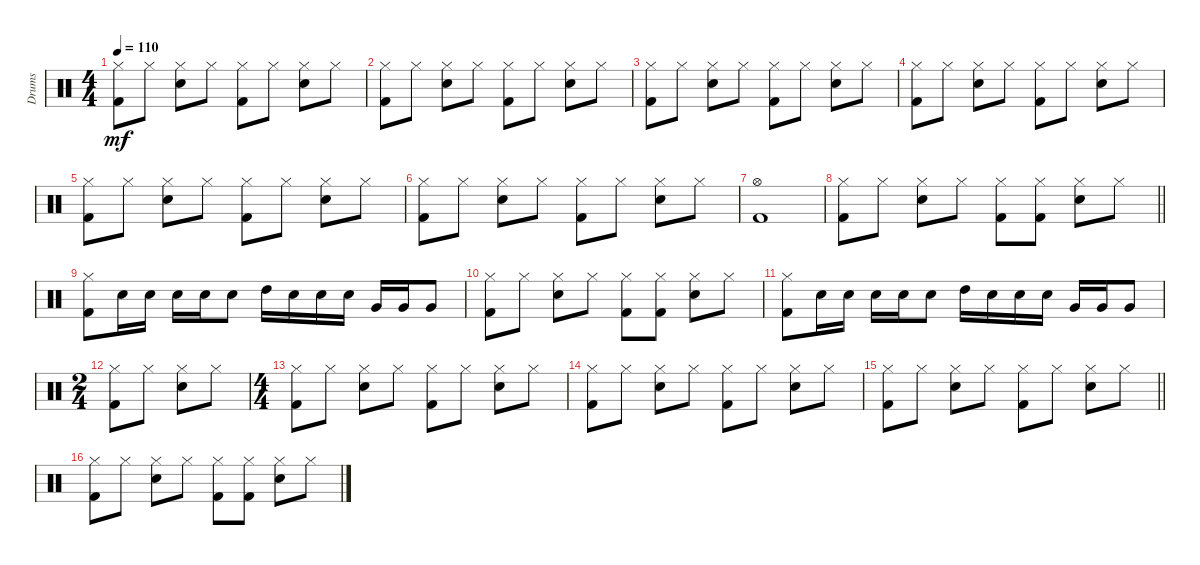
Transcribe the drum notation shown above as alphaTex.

\track ("Drums" "Drums") {instrument percussion}
\staff {score}
\articulation defaults
\ts (4 4)
\tempo 110
\clef neutral
\ks c
("Hi-Hat (closed)" "Kick (hit) 2").8{dy mf} "Hi-Hat (closed)".8 ("Hi-Hat (closed)" "Snare (hit) 2").8 "Hi-Hat (closed)".8 ("Hi-Hat (closed)" "Kick (hit) 2").8 "Hi-Hat (closed)".8 ("Hi-Hat (closed)" "Snare (hit) 2").8 "Hi-Hat (closed)".8 |
("Hi-Hat (closed)" "Kick (hit) 2").8 "Hi-Hat (closed)".8 ("Hi-Hat (closed)" "Snare (hit) 2").8 "Hi-Hat (closed)".8 ("Hi-Hat (closed)" "Kick (hit) 2").8 "Hi-Hat (closed)".8 ("Hi-Hat (closed)" "Snare (hit) 2").8 "Hi-Hat (closed)".8 |
("Hi-Hat (closed)" "Kick (hit) 2").8 "Hi-Hat (closed)".8 ("Hi-Hat (closed)" "Snare (hit) 2").8 "Hi-Hat (closed)".8 ("Hi-Hat (closed)" "Kick (hit) 2").8 "Hi-Hat (closed)".8 ("Hi-Hat (closed)" "Snare (hit) 2").8 "Hi-Hat (closed)".8 |
("Hi-Hat (closed)" "Kick (hit) 2").8 "Hi-Hat (closed)".8 ("Hi-Hat (closed)" "Snare (hit) 2").8 "Hi-Hat (closed)".8 ("Hi-Hat (closed)" "Kick (hit) 2").8 "Hi-Hat (closed)".8 ("Hi-Hat (closed)" "Snare (hit) 2").8 "Hi-Hat (closed)".8 |
("Hi-Hat (closed)" "Kick (hit) 2").8 "Hi-Hat (closed)".8 ("Hi-Hat (closed)" "Snare (hit) 2").8 "Hi-Hat (closed)".8 ("Hi-Hat (closed)" "Kick (hit) 2").8 "Hi-Hat (closed)".8 ("Hi-Hat (closed)" "Snare (hit) 2").8 "Hi-Hat (closed)".8 |
("Hi-Hat (closed)" "Kick (hit) 2").8 "Hi-Hat (closed)".8 ("Hi-Hat (closed)" "Snare (hit) 2").8 "Hi-Hat (closed)".8 ("Hi-Hat (closed)" "Kick (hit) 2").8 "Hi-Hat (closed)".8 ("Hi-Hat (closed)" "Snare (hit) 2").8 "Hi-Hat (closed)".8 |
("Hi-Hat (open)" "Kick (hit) 2").1 |
\barLineRight lightlight
("Hi-Hat (closed)" "Kick (hit) 2").8 "Hi-Hat (closed)".8 ("Hi-Hat (closed)" "Snare (hit) 2").8 "Hi-Hat (closed)".8 ("Hi-Hat (closed)" "Kick (hit) 2").8 ("Hi-Hat (closed)" "Kick (hit) 2").8 ("Hi-Hat (closed)" "Snare (hit) 2").8 "Hi-Hat (closed)".8 |
("Hi-Hat (closed)" "Kick (hit) 2").8 "Snare (hit) 2".16 "Snare (hit) 2".16 "Snare (hit) 2".16 "Snare (hit) 2".16 "Snare (hit) 2".8 "High Tom (hit)".16 "Snare (hit) 2".16 "Snare (hit) 2".16 "Snare (hit) 2".16 "Very Low Tom (hit)".16 "Very Low Tom (hit)".16 "Very Low Tom (hit)".8 |
("Hi-Hat (closed)" "Kick (hit) 2").8 "Hi-Hat (closed)".8 ("Hi-Hat (closed)" "Snare (hit) 2").8 "Hi-Hat (closed)".8 ("Hi-Hat (closed)" "Kick (hit) 2").8 ("Hi-Hat (closed)" "Kick (hit) 2").8 ("Hi-Hat (closed)" "Snare (hit) 2").8 "Hi-Hat (closed)".8 |
("Hi-Hat (closed)" "Kick (hit) 2").8 "Snare (hit) 2".16 "Snare (hit) 2".16 "Snare (hit) 2".16 "Snare (hit) 2".16 "Snare (hit) 2".8 "High Tom (hit)".16 "Snare (hit) 2".16 "Snare (hit) 2".16 "Snare (hit) 2".16 "Very Low Tom (hit)".16 "Very Low Tom (hit)".16 "Very Low Tom (hit)".8 |
\ts (2 4)
("Hi-Hat (closed)" "Kick (hit) 2").8 "Hi-Hat (closed)".8 ("Hi-Hat (closed)" "Snare (hit) 2").8 "Hi-Hat (closed)".8 |
\ts (4 4)
("Hi-Hat (closed)" "Kick (hit) 2").8 "Hi-Hat (closed)".8 ("Hi-Hat (closed)" "Snare (hit) 2").8 "Hi-Hat (closed)".8 ("Hi-Hat (closed)" "Kick (hit) 2").8 "Hi-Hat (closed)".8 ("Hi-Hat (closed)" "Snare (hit) 2").8 "Hi-Hat (closed)".8 |
("Hi-Hat (closed)" "Kick (hit) 2").8 "Hi-Hat (closed)".8 ("Hi-Hat (closed)" "Snare (hit) 2").8 "Hi-Hat (closed)".8 ("Hi-Hat (closed)" "Kick (hit) 2").8 "Hi-Hat (closed)".8 ("Hi-Hat (closed)" "Snare (hit) 2").8 "Hi-Hat (closed)".8 |
\barLineRight lightlight
("Hi-Hat (closed)" "Kick (hit) 2").8 "Hi-Hat (closed)".8 ("Hi-Hat (closed)" "Snare (hit) 2").8 "Hi-Hat (closed)".8 ("Hi-Hat (closed)" "Kick (hit) 2").8 "Hi-Hat (closed)".8 ("Hi-Hat (closed)" "Snare (hit) 2").8 "Hi-Hat (closed)".8 |
("Hi-Hat (closed)" "Kick (hit) 2").8 "Hi-Hat (closed)".8 ("Hi-Hat (closed)" "Snare (hit) 2").8 "Hi-Hat (closed)".8 ("Hi-Hat (closed)" "Kick (hit) 2").8 ("Hi-Hat (closed)" "Kick (hit) 2").8 ("Hi-Hat (closed)" "Snare (hit) 2").8 "Hi-Hat (closed)".8
